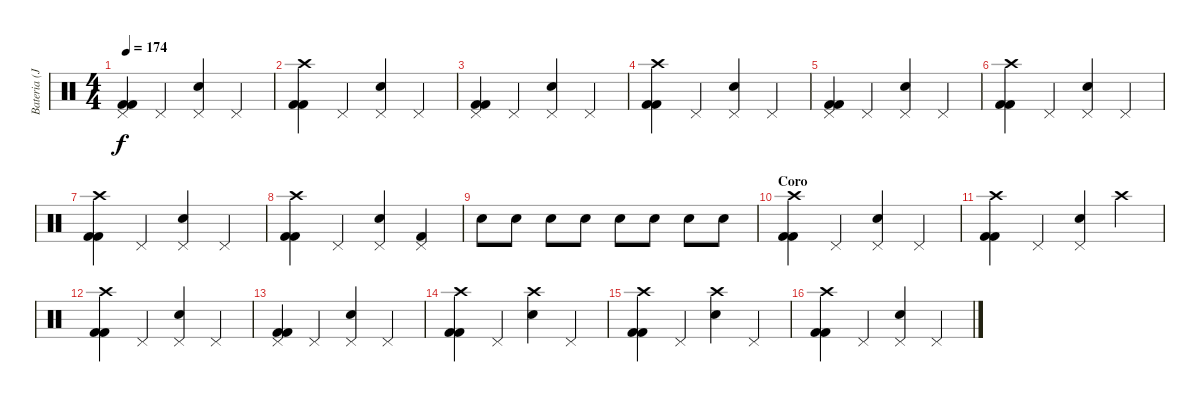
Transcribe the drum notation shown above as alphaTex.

\track ("Bateria (Jefrey Fischman)" "Bateria (J") {instrument percussion}
\staff {score}
\articulation defaults
\ts (4 4)
\tempo 174
\clef neutral
\ks c
("Pedal Hi-Hat (hit)" "Kick (hit) 2" "Kick (hit) 2").4{dy f} "Pedal Hi-Hat (hit)".4 ("Pedal Hi-Hat (hit)" "Snare (hit) 2").4 "Pedal Hi-Hat (hit)".4 |
("Crash high (hit)" "Kick (hit) 2" "Kick (hit) 2").4 "Pedal Hi-Hat (hit)".4 ("Pedal Hi-Hat (hit)" "Snare (hit) 2").4 "Pedal Hi-Hat (hit)".4 |
("Pedal Hi-Hat (hit)" "Kick (hit) 2" "Kick (hit) 2").4 "Pedal Hi-Hat (hit)".4 ("Pedal Hi-Hat (hit)" "Snare (hit) 2").4 "Pedal Hi-Hat (hit)".4 |
("Crash high (hit)" "Kick (hit) 2" "Kick (hit) 2").4 "Pedal Hi-Hat (hit)".4 ("Pedal Hi-Hat (hit)" "Snare (hit) 2").4 "Pedal Hi-Hat (hit)".4 |
("Pedal Hi-Hat (hit)" "Kick (hit) 2" "Kick (hit) 2").4 "Pedal Hi-Hat (hit)".4 ("Pedal Hi-Hat (hit)" "Snare (hit) 2").4 "Pedal Hi-Hat (hit)".4 |
("Crash high (hit)" "Kick (hit) 2" "Kick (hit) 2").4 "Pedal Hi-Hat (hit)".4 ("Pedal Hi-Hat (hit)" "Snare (hit) 2").4 "Pedal Hi-Hat (hit)".4 |
("Crash high (hit)" "Kick (hit) 2" "Kick (hit) 2").4 "Pedal Hi-Hat (hit)".4 ("Pedal Hi-Hat (hit)" "Snare (hit) 2").4 "Pedal Hi-Hat (hit)".4 |
("Crash high (hit)" "Kick (hit) 2" "Kick (hit) 2").4 "Pedal Hi-Hat (hit)".4 ("Pedal Hi-Hat (hit)" "Snare (hit) 2").4 ("Pedal Hi-Hat (hit)" "Kick (hit) 2").4 |
"Snare (hit) 2".8 "Snare (hit) 2".8 "Snare (hit) 2".8 "Snare (hit) 2".8 "Snare (hit) 2".8 "Snare (hit) 2".8 "Snare (hit) 2".8 "Snare (hit) 2".8 |
\section ("" "Coro")
("Crash high (hit)" "Kick (hit) 2" "Kick (hit) 2").4 "Pedal Hi-Hat (hit)".4 ("Pedal Hi-Hat (hit)" "Snare (hit) 2").4 "Pedal Hi-Hat (hit)".4 |
("Crash high (hit)" "Kick (hit) 2" "Kick (hit) 2").4 "Pedal Hi-Hat (hit)".4 ("Pedal Hi-Hat (hit)" "Snare (hit) 2").4 "Crash high (hit)".4 |
("Crash high (hit)" "Kick (hit) 2" "Kick (hit) 2").4 "Pedal Hi-Hat (hit)".4 ("Pedal Hi-Hat (hit)" "Snare (hit) 2").4 "Pedal Hi-Hat (hit)".4 |
("Pedal Hi-Hat (hit)" "Kick (hit) 2" "Kick (hit) 2").4 "Pedal Hi-Hat (hit)".4 ("Pedal Hi-Hat (hit)" "Snare (hit) 2").4 "Pedal Hi-Hat (hit)".4 |
("Crash high (hit)" "Kick (hit) 2" "Kick (hit) 2").4 "Pedal Hi-Hat (hit)".4 ("Crash high (hit)" "Snare (hit) 2").4 "Pedal Hi-Hat (hit)".4 |
("Crash high (hit)" "Kick (hit) 2" "Kick (hit) 2").4 "Pedal Hi-Hat (hit)".4 ("Crash high (hit)" "Snare (hit) 2").4 "Pedal Hi-Hat (hit)".4 |
("Crash high (hit)" "Kick (hit) 2" "Kick (hit) 2").4 "Pedal Hi-Hat (hit)".4 ("Pedal Hi-Hat (hit)" "Snare (hit) 2").4 "Pedal Hi-Hat (hit)".4
